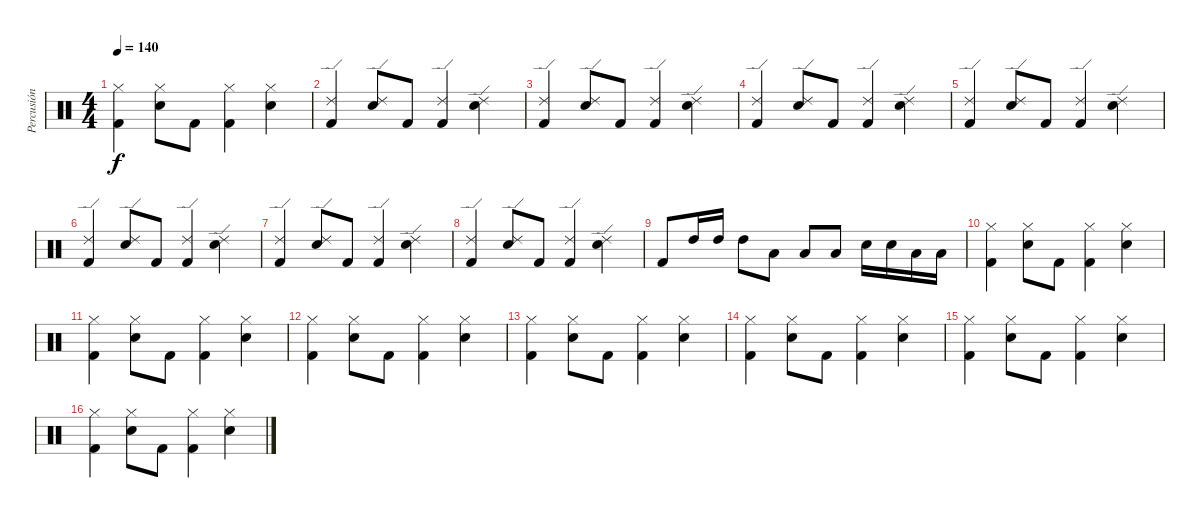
\track ("Percusión" "Percusión") {instrument percussion}
\staff {score}
\articulation defaults
\ts (4 4)
\tempo 140
\clef neutral
\ks c
("Hi-Hat (closed)" "Kick (hit) 2").4{dy f} ("Hi-Hat (closed)" "Snare (hit) 2").8 "Kick (hit) 2".8 ("Hi-Hat (closed)" "Kick (hit) 2").4 ("Hi-Hat (closed)" "Snare (hit) 2").4 |
("Ride (edge) 2" "Kick (hit) 2").4 ("Ride (edge) 2" "Snare (hit) 2").8 "Kick (hit) 2".8 ("Ride (edge) 2" "Kick (hit) 2").4 ("Ride (edge) 2" "Snare (hit) 2").4 |
("Ride (edge) 2" "Kick (hit) 2").4 ("Ride (edge) 2" "Snare (hit) 2").8 "Kick (hit) 2".8 ("Ride (edge) 2" "Kick (hit) 2").4 ("Ride (edge) 2" "Snare (hit) 2").4 |
("Ride (edge) 2" "Kick (hit) 2").4 ("Ride (edge) 2" "Snare (hit) 2").8 "Kick (hit) 2".8 ("Ride (edge) 2" "Kick (hit) 2").4 ("Ride (edge) 2" "Snare (hit) 2").4 |
("Ride (edge) 2" "Kick (hit) 2").4 ("Ride (edge) 2" "Snare (hit) 2").8 "Kick (hit) 2".8 ("Ride (edge) 2" "Kick (hit) 2").4 ("Ride (edge) 2" "Snare (hit) 2").4 |
("Ride (edge) 2" "Kick (hit) 2").4 ("Ride (edge) 2" "Snare (hit) 2").8 "Kick (hit) 2".8 ("Ride (edge) 2" "Kick (hit) 2").4 ("Ride (edge) 2" "Snare (hit) 2").4 |
("Ride (edge) 2" "Kick (hit) 2").4 ("Ride (edge) 2" "Snare (hit) 2").8 "Kick (hit) 2".8 ("Ride (edge) 2" "Kick (hit) 2").4 ("Ride (edge) 2" "Snare (hit) 2").4 |
("Ride (edge) 2" "Kick (hit) 2").4 ("Ride (edge) 2" "Snare (hit) 2").8 "Kick (hit) 2".8 ("Ride (edge) 2" "Kick (hit) 2").4 ("Ride (edge) 2" "Snare (hit) 2").4 |
"Kick (hit) 2".8 "High Tom (hit)".16 "High Tom (hit)".16 "High Tom (hit)".8 "Low Tom (hit)".8 "Low Tom (hit)".8 "Low Tom (hit)".8 "Snare (hit) 2".16 "Snare (hit) 2".16 "Low Tom (hit)".16 "Low Tom (hit)".16 |
("Hi-Hat (closed)" "Kick (hit) 2").4 ("Hi-Hat (closed)" "Snare (hit) 2").8 "Kick (hit) 2".8 ("Hi-Hat (closed)" "Kick (hit) 2").4 ("Hi-Hat (closed)" "Snare (hit) 2").4 |
("Hi-Hat (closed)" "Kick (hit) 2").4 ("Hi-Hat (closed)" "Snare (hit) 2").8 "Kick (hit) 2".8 ("Hi-Hat (closed)" "Kick (hit) 2").4 ("Hi-Hat (closed)" "Snare (hit) 2").4 |
("Hi-Hat (closed)" "Kick (hit) 2").4 ("Hi-Hat (closed)" "Snare (hit) 2").8 "Kick (hit) 2".8 ("Hi-Hat (closed)" "Kick (hit) 2").4 ("Hi-Hat (closed)" "Snare (hit) 2").4 |
("Hi-Hat (closed)" "Kick (hit) 2").4 ("Hi-Hat (closed)" "Snare (hit) 2").8 "Kick (hit) 2".8 ("Hi-Hat (closed)" "Kick (hit) 2").4 ("Hi-Hat (closed)" "Snare (hit) 2").4 |
("Hi-Hat (closed)" "Kick (hit) 2").4 ("Hi-Hat (closed)" "Snare (hit) 2").8 "Kick (hit) 2".8 ("Hi-Hat (closed)" "Kick (hit) 2").4 ("Hi-Hat (closed)" "Snare (hit) 2").4 |
("Hi-Hat (closed)" "Kick (hit) 2").4 ("Hi-Hat (closed)" "Snare (hit) 2").8 "Kick (hit) 2".8 ("Hi-Hat (closed)" "Kick (hit) 2").4 ("Hi-Hat (closed)" "Snare (hit) 2").4 |
("Hi-Hat (closed)" "Kick (hit) 2").4 ("Hi-Hat (closed)" "Snare (hit) 2").8 "Kick (hit) 2".8 ("Hi-Hat (closed)" "Kick (hit) 2").4 ("Hi-Hat (closed)" "Snare (hit) 2").4
